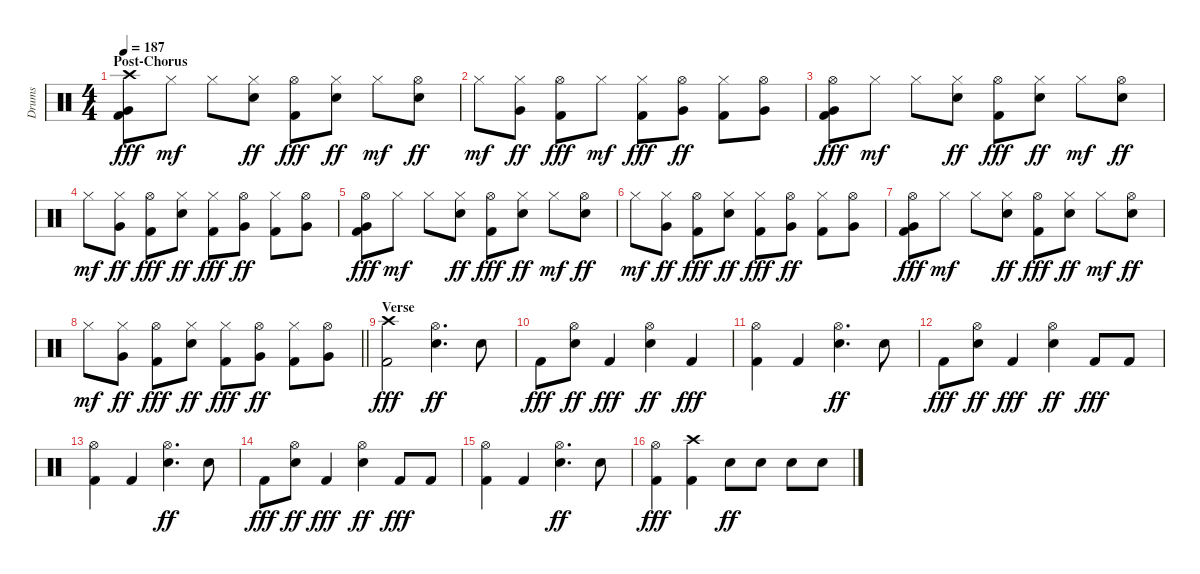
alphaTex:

\track ("Drums" "Drums") {instrument percussion}
\staff {score}
\articulation defaults
\ts (4 4)
\section ("" "Post-Chorus")
\tempo 187
\clef neutral
\ks c
("Crash high (hit)" "Very Low Tom (hit)" "Kick (hit) 2").8{dy fff} "Hi-Hat (closed)".8{dy mf} "Hi-Hat (closed)".8 ("Hi-Hat (closed)" "Snare (hit) 2").8{dy ff} ("Hi-Hat (open)" "Kick (hit) 2").8{dy fff} ("Hi-Hat (closed)" "Snare (hit) 2").8{dy ff} "Hi-Hat (closed)".8{dy mf} ("Hi-Hat (open)" "Snare (hit) 2").8{dy ff} |
"Hi-Hat (closed)".8{dy mf} ("Hi-Hat (closed)" "Very Low Tom (hit)").8{dy ff} ("Hi-Hat (open)" "Kick (hit) 2").8{dy fff} "Hi-Hat (closed)".8{dy mf} ("Hi-Hat (closed)" "Kick (hit) 2").8{dy fff} ("Hi-Hat (open)" "Very Low Tom (hit)").8{dy ff} ("Hi-Hat (closed)" "Kick (hit) 2").8 ("Hi-Hat (open)" "Very Low Tom (hit)").8 |
("Hi-Hat (open)" "Very Low Tom (hit)" "Kick (hit) 2").8{dy fff} "Hi-Hat (closed)".8{dy mf} "Hi-Hat (closed)".8 ("Hi-Hat (closed)" "Snare (hit) 2").8{dy ff} ("Hi-Hat (open)" "Kick (hit) 2").8{dy fff} ("Hi-Hat (closed)" "Snare (hit) 2").8{dy ff} "Hi-Hat (closed)".8{dy mf} ("Hi-Hat (open)" "Snare (hit) 2").8{dy ff} |
"Hi-Hat (closed)".8{dy mf} ("Hi-Hat (closed)" "Very Low Tom (hit)").8{dy ff} ("Hi-Hat (open)" "Kick (hit) 2").8{dy fff} ("Hi-Hat (closed)" "Snare (hit) 2").8{dy ff} ("Hi-Hat (closed)" "Kick (hit) 2").8{dy fff} ("Hi-Hat (open)" "Very Low Tom (hit)").8{dy ff} ("Hi-Hat (closed)" "Kick (hit) 2").8 ("Hi-Hat (open)" "Very Low Tom (hit)").8 |
("Hi-Hat (open)" "Very Low Tom (hit)" "Kick (hit) 2").8{dy fff} "Hi-Hat (closed)".8{dy mf} "Hi-Hat (closed)".8 ("Hi-Hat (closed)" "Snare (hit) 2").8{dy ff} ("Hi-Hat (open)" "Kick (hit) 2").8{dy fff} ("Hi-Hat (closed)" "Snare (hit) 2").8{dy ff} "Hi-Hat (closed)".8{dy mf} ("Hi-Hat (open)" "Snare (hit) 2").8{dy ff} |
"Hi-Hat (closed)".8{dy mf} ("Hi-Hat (closed)" "Very Low Tom (hit)").8{dy ff} ("Hi-Hat (open)" "Kick (hit) 2").8{dy fff} ("Hi-Hat (closed)" "Snare (hit) 2").8{dy ff} ("Hi-Hat (closed)" "Kick (hit) 2").8{dy fff} ("Hi-Hat (open)" "Very Low Tom (hit)").8{dy ff} ("Hi-Hat (closed)" "Kick (hit) 2").8 ("Hi-Hat (open)" "Very Low Tom (hit)").8 |
("Hi-Hat (open)" "Very Low Tom (hit)" "Kick (hit) 2").8{dy fff} "Hi-Hat (closed)".8{dy mf} "Hi-Hat (closed)".8 ("Hi-Hat (closed)" "Snare (hit) 2").8{dy ff} ("Hi-Hat (open)" "Kick (hit) 2").8{dy fff} ("Hi-Hat (closed)" "Snare (hit) 2").8{dy ff} "Hi-Hat (closed)".8{dy mf} ("Hi-Hat (open)" "Snare (hit) 2").8{dy ff} |
\barLineRight lightlight "Hi-Hat (closed)".8{dy mf}
("Hi-Hat (closed)" "Very Low Tom (hit)").8{dy ff} ("Hi-Hat (open)" "Kick (hit) 2").8{dy fff} ("Hi-Hat (closed)" "Snare (hit) 2").8{dy ff} ("Hi-Hat (closed)" "Kick (hit) 2").8{dy fff} ("Hi-Hat (open)" "Very Low Tom (hit)").8{dy ff} ("Hi-Hat (closed)" "Kick (hit) 2").8 ("Hi-Hat (open)" "Very Low Tom (hit)").8 |
\section ("" "Verse")
("Crash high (hit)" "Kick (hit) 2").2{dy fff} ("Hi-Hat (open)" "Snare (hit) 2").4{d dy ff} "Snare (hit) 2".8 |
"Kick (hit) 2".8{dy fff} ("Hi-Hat (open)" "Snare (hit) 2").8{dy ff} "Kick (hit) 2".4{dy fff} ("Hi-Hat (open)" "Snare (hit) 2").4{dy ff} "Kick (hit) 2".4{dy fff} |
("Hi-Hat (open)" "Kick (hit) 2").4 "Kick (hit) 2".4 ("Hi-Hat (open)" "Snare (hit) 2").4{d dy ff} "Snare (hit) 2".8 |
"Kick (hit) 2".8{dy fff} ("Hi-Hat (open)" "Snare (hit) 2").8{dy ff} "Kick (hit) 2".4{dy fff} ("Hi-Hat (open)" "Snare (hit) 2").4{dy ff} "Kick (hit) 2".8{dy fff} "Kick (hit) 2".8 |
("Hi-Hat (open)" "Kick (hit) 2").4 "Kick (hit) 2".4 ("Hi-Hat (open)" "Snare (hit) 2").4{d dy ff} "Snare (hit) 2".8 |
"Kick (hit) 2".8{dy fff} ("Hi-Hat (open)" "Snare (hit) 2").8{dy ff} "Kick (hit) 2".4{dy fff} ("Hi-Hat (open)" "Snare (hit) 2").4{dy ff} "Kick (hit) 2".8{dy fff} "Kick (hit) 2".8 |
("Hi-Hat (open)" "Kick (hit) 2").4 "Kick (hit) 2".4 ("Hi-Hat (open)" "Snare (hit) 2").4{d dy ff} "Snare (hit) 2".8 |
("Hi-Hat (open)" "Kick (hit) 2").4{dy fff} ("Crash high (hit)" "Kick (hit) 2").4 "Snare (hit) 2".8{dy ff} "Snare (hit) 2".8 "Snare (hit) 2".8 "Snare (hit) 2".8
